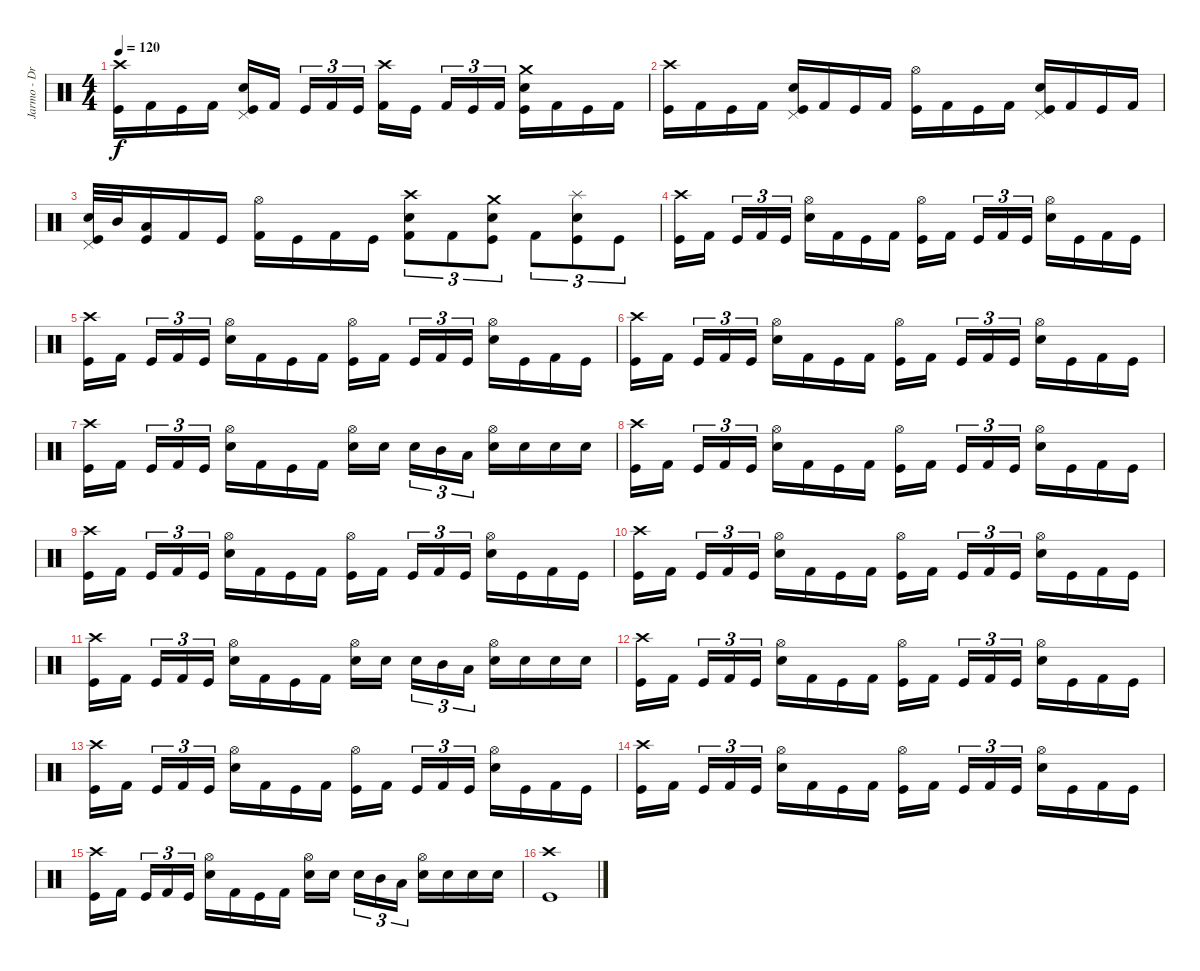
\track ("Jarmo - Drums" "Jarmo - Dr") {instrument percussion}
\staff {score}
\articulation defaults
\ts (4 4)
\tempo 120
\clef neutral
\ks c
("Kick (hit)" "Crash high (hit)").16{dy f} "Kick (hit) 2".16 "Kick (hit)".16 "Kick (hit) 2".16 ("Kick (hit)" "Electric Snare (hit)" "Pedal Hi-Hat (hit)").16 "Kick (hit) 2".16 "Kick (hit)".16{tu (3 2)} "Kick (hit) 2".16{tu (3 2)} "Kick (hit)".16{tu (3 2)} ("Kick (hit) 2" "Crash high (hit)").16 "Kick (hit)".16 "Kick (hit) 2".16{tu (3 2)} "Kick (hit)".16{tu (3 2)} "Kick (hit) 2".16{tu (3 2)} ("Kick (hit)" "Electric Snare (hit)" "Crash medium (hit)").16 "Kick (hit) 2".16 "Kick (hit)".16 "Kick (hit) 2".16 |
("Kick (hit)" "Crash high (hit)").16 "Kick (hit) 2".16 "Kick (hit)".16 "Kick (hit) 2".16 ("Kick (hit)" "Electric Snare (hit)" "Pedal Hi-Hat (hit)").16 "Kick (hit) 2".16 "Kick (hit)".16 "Kick (hit) 2".16 ("Kick (hit)" "Hi-Hat (open)").16 "Kick (hit) 2".16 "Kick (hit)".16 "Kick (hit) 2".16 ("Kick (hit)" "Electric Snare (hit)" "Pedal Hi-Hat (hit)").16 "Kick (hit) 2".16 "Kick (hit)".16 "Kick (hit) 2".16 |
("Kick (hit)" "Electric Snare (hit)" "Pedal Hi-Hat (hit)").32 "Mid Tom (hit)".32 ("Kick (hit)" "Low Tom (hit)").16 "Kick (hit) 2".16 "Kick (hit)".16 ("Kick (hit) 2" "Hi-Hat (open)").16 "Kick (hit)".16 "Kick (hit) 2".16 "Kick (hit)".16 ("Kick (hit) 2" "Electric Snare (hit)" "Crash high (hit)").8{tu (3 2)} "Kick (hit) 2".8{tu (3 2)} ("Kick (hit)" "Electric Snare (hit)" "Crash medium (hit)").8{tu (3 2)} "Kick (hit) 2".8{tu (3 2)} ("Kick (hit)" "Electric Snare (hit)" "Splash (hit)").8{tu (3 2)} "Kick (hit)".8{tu (3 2)} |
("Kick (hit)" "Crash high (hit)").16 "Kick (hit) 2".16 "Kick (hit)".16{tu (3 2)} "Kick (hit) 2".16{tu (3 2)} "Kick (hit)".16{tu (3 2)} ("Electric Snare (hit)" "Hi-Hat (open)").16 "Kick (hit) 2".16 "Kick (hit)".16 "Kick (hit) 2".16 ("Kick (hit)" "Hi-Hat (open)").16 "Kick (hit) 2".16 "Kick (hit)".16{tu (3 2)} "Kick (hit) 2".16{tu (3 2)} "Kick (hit)".16{tu (3 2)} ("Electric Snare (hit)" "Hi-Hat (open)").16 "Kick (hit)".16 "Kick (hit) 2".16 "Kick (hit)".16 |
("Kick (hit)" "Crash high (hit)").16 "Kick (hit) 2".16 "Kick (hit)".16{tu (3 2)} "Kick (hit) 2".16{tu (3 2)} "Kick (hit)".16{tu (3 2)} ("Electric Snare (hit)" "Hi-Hat (open)").16 "Kick (hit) 2".16 "Kick (hit)".16 "Kick (hit) 2".16 ("Kick (hit)" "Hi-Hat (open)").16 "Kick (hit) 2".16 "Kick (hit)".16{tu (3 2)} "Kick (hit) 2".16{tu (3 2)} "Kick (hit)".16{tu (3 2)} ("Electric Snare (hit)" "Hi-Hat (open)").16 "Kick (hit)".16 "Kick (hit) 2".16 "Kick (hit)".16 |
("Kick (hit)" "Crash high (hit)").16 "Kick (hit) 2".16 "Kick (hit)".16{tu (3 2)} "Kick (hit) 2".16{tu (3 2)} "Kick (hit)".16{tu (3 2)} ("Electric Snare (hit)" "Hi-Hat (open)").16 "Kick (hit) 2".16 "Kick (hit)".16 "Kick (hit) 2".16 ("Kick (hit)" "Hi-Hat (open)").16 "Kick (hit) 2".16 "Kick (hit)".16{tu (3 2)} "Kick (hit) 2".16{tu (3 2)} "Kick (hit)".16{tu (3 2)} ("Electric Snare (hit)" "Hi-Hat (open)").16 "Kick (hit)".16 "Kick (hit) 2".16 "Kick (hit)".16 |
("Kick (hit)" "Crash high (hit)").16 "Kick (hit) 2".16 "Kick (hit)".16{tu (3 2)} "Kick (hit) 2".16{tu (3 2)} "Kick (hit)".16{tu (3 2)} ("Electric Snare (hit)" "Hi-Hat (open)").16 "Kick (hit) 2".16 "Kick (hit)".16 "Kick (hit) 2".16 ("Electric Snare (hit)" "Hi-Hat (open)").16 "Electric Snare (hit)".16 "Electric Snare (hit)".16{tu (3 2)} "Mid Tom (hit)".16{tu (3 2)} "Low Tom (hit)".16{tu (3 2)} ("Electric Snare (hit)" "Hi-Hat (open)").16 "Electric Snare (hit)".16 "Electric Snare (hit)".16 "Electric Snare (hit)".16 |
("Kick (hit)" "Crash high (hit)").16 "Kick (hit) 2".16 "Kick (hit)".16{tu (3 2)} "Kick (hit) 2".16{tu (3 2)} "Kick (hit)".16{tu (3 2)} ("Electric Snare (hit)" "Hi-Hat (open)").16 "Kick (hit) 2".16 "Kick (hit)".16 "Kick (hit) 2".16 ("Kick (hit)" "Hi-Hat (open)").16 "Kick (hit) 2".16 "Kick (hit)".16{tu (3 2)} "Kick (hit) 2".16{tu (3 2)} "Kick (hit)".16{tu (3 2)} ("Electric Snare (hit)" "Hi-Hat (open)").16 "Kick (hit)".16 "Kick (hit) 2".16 "Kick (hit)".16 |
("Kick (hit)" "Crash high (hit)").16 "Kick (hit) 2".16 "Kick (hit)".16{tu (3 2)} "Kick (hit) 2".16{tu (3 2)} "Kick (hit)".16{tu (3 2)} ("Electric Snare (hit)" "Hi-Hat (open)").16 "Kick (hit) 2".16 "Kick (hit)".16 "Kick (hit) 2".16 ("Kick (hit)" "Hi-Hat (open)").16 "Kick (hit) 2".16 "Kick (hit)".16{tu (3 2)} "Kick (hit) 2".16{tu (3 2)} "Kick (hit)".16{tu (3 2)} ("Electric Snare (hit)" "Hi-Hat (open)").16 "Kick (hit)".16 "Kick (hit) 2".16 "Kick (hit)".16 |
("Kick (hit)" "Crash high (hit)").16 "Kick (hit) 2".16 "Kick (hit)".16{tu (3 2)} "Kick (hit) 2".16{tu (3 2)} "Kick (hit)".16{tu (3 2)} ("Electric Snare (hit)" "Hi-Hat (open)").16 "Kick (hit) 2".16 "Kick (hit)".16 "Kick (hit) 2".16 ("Kick (hit)" "Hi-Hat (open)").16 "Kick (hit) 2".16 "Kick (hit)".16{tu (3 2)} "Kick (hit) 2".16{tu (3 2)} "Kick (hit)".16{tu (3 2)} ("Electric Snare (hit)" "Hi-Hat (open)").16 "Kick (hit)".16 "Kick (hit) 2".16 "Kick (hit)".16 |
("Kick (hit)" "Crash high (hit)").16 "Kick (hit) 2".16 "Kick (hit)".16{tu (3 2)} "Kick (hit) 2".16{tu (3 2)} "Kick (hit)".16{tu (3 2)} ("Electric Snare (hit)" "Hi-Hat (open)").16 "Kick (hit) 2".16 "Kick (hit)".16 "Kick (hit) 2".16 ("Electric Snare (hit)" "Hi-Hat (open)").16 "Electric Snare (hit)".16 "Electric Snare (hit)".16{tu (3 2)} "Mid Tom (hit)".16{tu (3 2)} "Low Tom (hit)".16{tu (3 2)} ("Electric Snare (hit)" "Hi-Hat (open)").16 "Electric Snare (hit)".16 "Electric Snare (hit)".16 "Electric Snare (hit)".16 |
("Kick (hit)" "Crash high (hit)").16 "Kick (hit) 2".16 "Kick (hit)".16{tu (3 2)} "Kick (hit) 2".16{tu (3 2)} "Kick (hit)".16{tu (3 2)} ("Electric Snare (hit)" "Hi-Hat (open)").16 "Kick (hit) 2".16 "Kick (hit)".16 "Kick (hit) 2".16 ("Kick (hit)" "Hi-Hat (open)").16 "Kick (hit) 2".16 "Kick (hit)".16{tu (3 2)} "Kick (hit) 2".16{tu (3 2)} "Kick (hit)".16{tu (3 2)} ("Electric Snare (hit)" "Hi-Hat (open)").16 "Kick (hit)".16 "Kick (hit) 2".16 "Kick (hit)".16 |
("Kick (hit)" "Crash high (hit)").16 "Kick (hit) 2".16 "Kick (hit)".16{tu (3 2)} "Kick (hit) 2".16{tu (3 2)} "Kick (hit)".16{tu (3 2)} ("Electric Snare (hit)" "Hi-Hat (open)").16 "Kick (hit) 2".16 "Kick (hit)".16 "Kick (hit) 2".16 ("Kick (hit)" "Hi-Hat (open)").16 "Kick (hit) 2".16 "Kick (hit)".16{tu (3 2)} "Kick (hit) 2".16{tu (3 2)} "Kick (hit)".16{tu (3 2)} ("Electric Snare (hit)" "Hi-Hat (open)").16 "Kick (hit)".16 "Kick (hit) 2".16 "Kick (hit)".16 |
("Kick (hit)" "Crash high (hit)").16 "Kick (hit) 2".16 "Kick (hit)".16{tu (3 2)} "Kick (hit) 2".16{tu (3 2)} "Kick (hit)".16{tu (3 2)} ("Electric Snare (hit)" "Hi-Hat (open)").16 "Kick (hit) 2".16 "Kick (hit)".16 "Kick (hit) 2".16 ("Kick (hit)" "Hi-Hat (open)").16 "Kick (hit) 2".16 "Kick (hit)".16{tu (3 2)} "Kick (hit) 2".16{tu (3 2)} "Kick (hit)".16{tu (3 2)} ("Electric Snare (hit)" "Hi-Hat (open)").16 "Kick (hit)".16 "Kick (hit) 2".16 "Kick (hit)".16 |
("Kick (hit)" "Crash high (hit)").16 "Kick (hit) 2".16 "Kick (hit)".16{tu (3 2)} "Kick (hit) 2".16{tu (3 2)} "Kick (hit)".16{tu (3 2)} ("Electric Snare (hit)" "Hi-Hat (open)").16 "Kick (hit) 2".16 "Kick (hit)".16 "Kick (hit) 2".16 ("Electric Snare (hit)" "Hi-Hat (open)").16 "Electric Snare (hit)".16 "Electric Snare (hit)".16{tu (3 2)} "Mid Tom (hit)".16{tu (3 2)} "Low Tom (hit)".16{tu (3 2)} ("Electric Snare (hit)" "Hi-Hat (open)").16 "Electric Snare (hit)".16 "Electric Snare (hit)".16 "Electric Snare (hit)".16 |
("Kick (hit)" "Crash high (hit)").1
